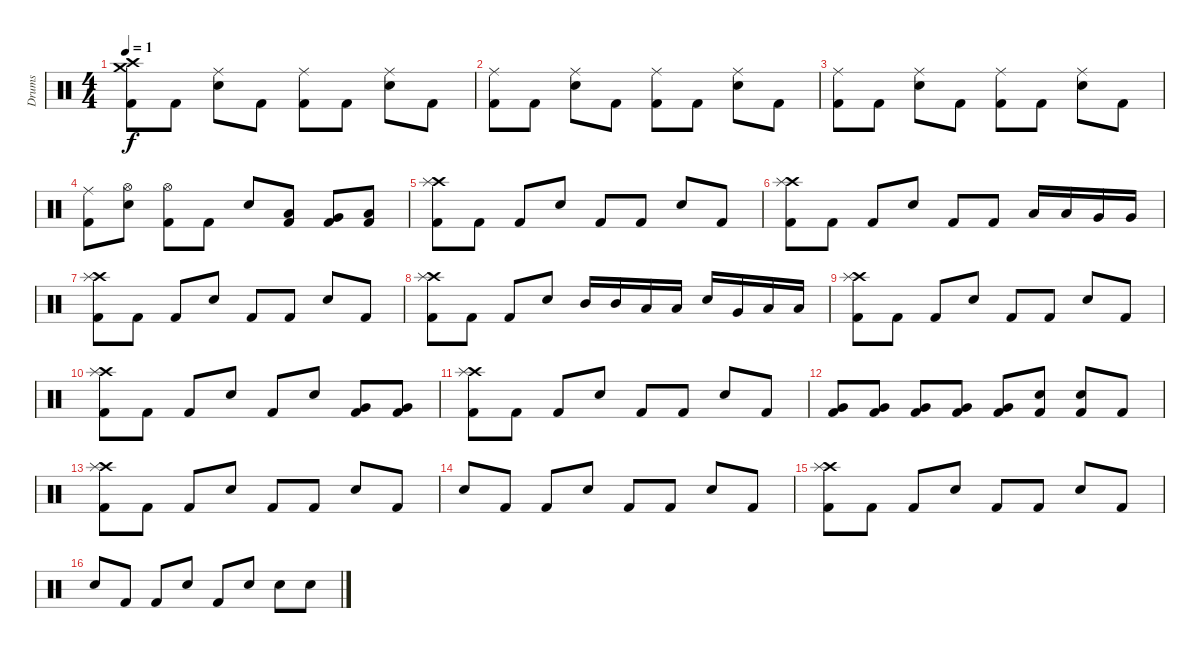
\track ("Drums" "Drums") {instrument percussion}
\staff {score}
\articulation defaults
\ts (4 4)
\tempo 1
\clef neutral
\ks c
("Crash high (hit)" "Crash medium (hit)" "Kick (hit) 2").8{dy f} "Kick (hit) 2".8 ("Ride (middle)" "Snare (hit) 2").8 "Kick (hit) 2".8 ("Ride (middle)" "Kick (hit) 2").8 "Kick (hit) 2".8 ("Ride (middle)" "Snare (hit) 2").8 "Kick (hit) 2".8 |
("Ride (middle)" "Kick (hit) 2").8 "Kick (hit) 2".8 ("Ride (middle)" "Snare (hit) 2").8 "Kick (hit) 2".8 ("Ride (middle)" "Kick (hit) 2").8 "Kick (hit) 2".8 ("Ride (middle)" "Snare (hit) 2").8 "Kick (hit) 2".8 |
("Ride (middle)" "Kick (hit) 2").8 "Kick (hit) 2".8 ("Ride (middle)" "Snare (hit) 2").8 "Kick (hit) 2".8 ("Ride (middle)" "Kick (hit) 2").8 "Kick (hit) 2".8 ("Ride (middle)" "Snare (hit) 2").8 "Kick (hit) 2".8 |
("Ride (middle)" "Kick (hit) 2").8 ("Hi-Hat (open)" "Snare (hit) 2").8 ("Hi-Hat (open)" "Kick (hit) 2").8 "Kick (hit) 2".8 "Snare (hit) 2".8 ("Kick (hit) 2" "Low Tom (hit)").8 ("Kick (hit) 2" "Very Low Tom (hit)").8 ("Kick (hit) 2" "Low Floor Tom (hit)").8 |
("Crash high (hit)" "Splash (hit)" "Kick (hit) 2").8 "Kick (hit) 2".8 "Kick (hit) 2".8 "Snare (hit) 2".8 "Kick (hit) 2".8 "Kick (hit) 2".8 "Snare (hit) 2".8 "Kick (hit) 2".8 |
("Crash high (hit)" "Splash (hit)" "Kick (hit) 2").8 "Kick (hit) 2".8 "Kick (hit) 2".8 "Snare (hit) 2".8 "Kick (hit) 2".8 "Kick (hit) 2".8 "Low Tom (hit)".16 "Low Tom (hit)".16 "Very Low Tom (hit)".16 "Very Low Tom (hit)".16 |
("Crash high (hit)" "Splash (hit)" "Kick (hit) 2").8 "Kick (hit) 2".8 "Kick (hit) 2".8 "Snare (hit) 2".8 "Kick (hit) 2".8 "Kick (hit) 2".8 "Snare (hit) 2".8 "Kick (hit) 2".8 |
("Crash high (hit)" "Splash (hit)" "Kick (hit) 2").8 "Kick (hit) 2".8 "Kick (hit) 2".8 "Snare (hit) 2".8 "Mid Tom (hit)".16 "Mid Tom (hit)".16 "Low Tom (hit)".16 "Low Tom (hit)".16 "Snare (hit) 2".16 "Very Low Tom (hit)".16 "Low Floor Tom (hit)".16 "Low Floor Tom (hit)".16 |
("Crash high (hit)" "Splash (hit)" "Kick (hit) 2").8 "Kick (hit) 2".8 "Kick (hit) 2".8 "Snare (hit) 2".8 "Kick (hit) 2".8 "Kick (hit) 2".8 "Snare (hit) 2".8 "Kick (hit) 2".8 |
("Crash high (hit)" "Splash (hit)" "Kick (hit) 2").8 "Kick (hit) 2".8 "Kick (hit) 2".8 "Snare (hit) 2".8 "Kick (hit) 2".8 "Snare (hit) 2".8 ("Very Low Tom (hit)" "Kick (hit) 2").8 ("Very Low Tom (hit)" "Kick (hit) 2").8 |
("Crash high (hit)" "Splash (hit)" "Kick (hit) 2").8 "Kick (hit) 2".8 "Kick (hit) 2".8 "Snare (hit) 2".8 "Kick (hit) 2".8 "Kick (hit) 2".8 "Snare (hit) 2".8 "Kick (hit) 2".8 |
("Very Low Tom (hit)" "Kick (hit) 2").8 ("Very Low Tom (hit)" "Kick (hit) 2").8 ("Very Low Tom (hit)" "Kick (hit) 2").8 ("Very Low Tom (hit)" "Kick (hit) 2").8 ("Very Low Tom (hit)" "Kick (hit) 2").8 ("Snare (hit) 2" "Kick (hit) 2").8 ("Snare (hit) 2" "Kick (hit) 2").8 "Kick (hit) 2".8 |
("Crash high (hit)" "Splash (hit)" "Kick (hit) 2").8 "Kick (hit) 2".8 "Kick (hit) 2".8 "Snare (hit) 2".8 "Kick (hit) 2".8 "Kick (hit) 2".8 "Snare (hit) 2".8 "Kick (hit) 2".8 |
"Snare (hit) 2".8 "Kick (hit) 2".8 "Kick (hit) 2".8 "Snare (hit) 2".8 "Kick (hit) 2".8 "Kick (hit) 2".8 "Snare (hit) 2".8 "Kick (hit) 2".8 |
("Crash high (hit)" "Splash (hit)" "Kick (hit) 2").8 "Kick (hit) 2".8 "Kick (hit) 2".8 "Snare (hit) 2".8 "Kick (hit) 2".8 "Kick (hit) 2".8 "Snare (hit) 2".8 "Kick (hit) 2".8 |
"Snare (hit) 2".8 "Kick (hit) 2".8 "Kick (hit) 2".8 "Snare (hit) 2".8 "Kick (hit) 2".8 "Snare (hit) 2".8 "Snare (hit) 2".8 "Snare (hit) 2".8
